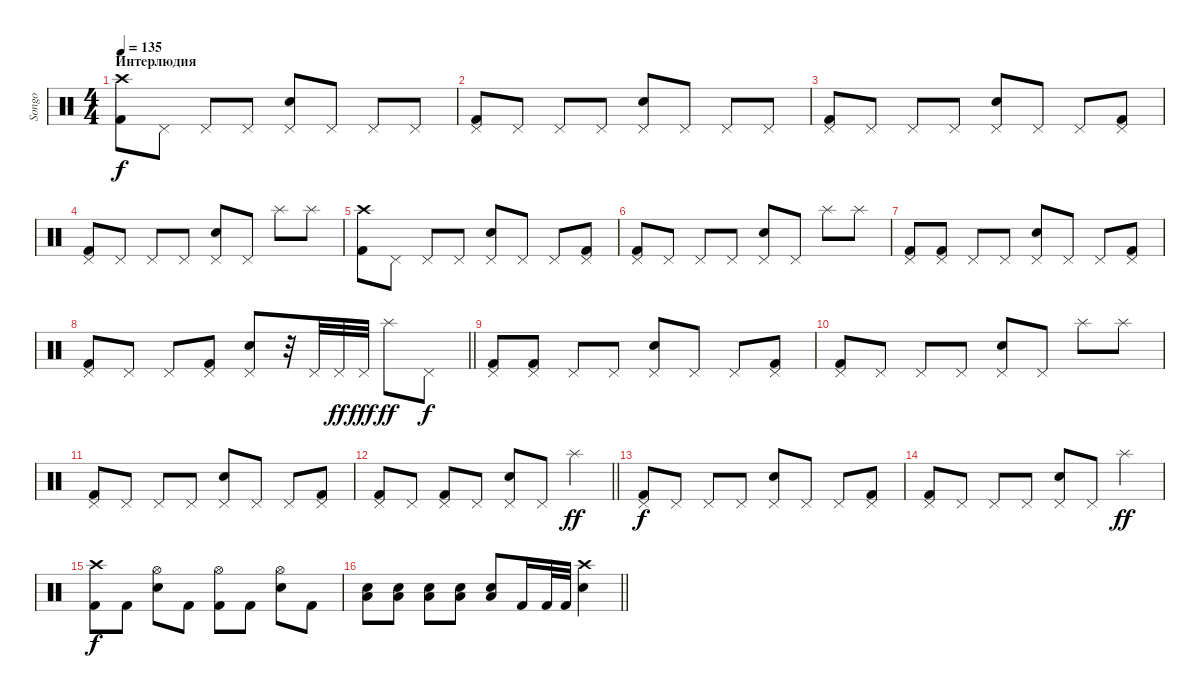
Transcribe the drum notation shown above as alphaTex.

\track ("Songo" "Songo") {instrument percussion}
\staff {score}
\articulation defaults
\ts (4 4)
\section ("" "Интерлюдия")
\tempo 135
\clef neutral
\ks c
("Crash high (hit)" "Kick (hit) 2").8{dy f} "Pedal Hi-Hat (hit)".8 "Pedal Hi-Hat (hit)".8 "Pedal Hi-Hat (hit)".8 ("Pedal Hi-Hat (hit)" "Snare (hit) 2").8 "Pedal Hi-Hat (hit)".8 "Pedal Hi-Hat (hit)".8 "Pedal Hi-Hat (hit)".8 |
("Pedal Hi-Hat (hit)" "Kick (hit) 2").8 "Pedal Hi-Hat (hit)".8 "Pedal Hi-Hat (hit)".8 "Pedal Hi-Hat (hit)".8 ("Pedal Hi-Hat (hit)" "Snare (hit) 2").8 "Pedal Hi-Hat (hit)".8 "Pedal Hi-Hat (hit)".8 "Pedal Hi-Hat (hit)".8 |
("Pedal Hi-Hat (hit)" "Kick (hit) 2").8 "Pedal Hi-Hat (hit)".8 "Pedal Hi-Hat (hit)".8 "Pedal Hi-Hat (hit)".8 ("Pedal Hi-Hat (hit)" "Snare (hit) 2").8 "Pedal Hi-Hat (hit)".8 "Pedal Hi-Hat (hit)".8 ("Pedal Hi-Hat (hit)" "Kick (hit) 2").8 |
("Pedal Hi-Hat (hit)" "Kick (hit) 2").8 "Pedal Hi-Hat (hit)".8 "Pedal Hi-Hat (hit)".8 "Pedal Hi-Hat (hit)".8 ("Pedal Hi-Hat (hit)" "Snare (hit) 2").8 "Pedal Hi-Hat (hit)".8 "Splash (hit)".8 "Splash (hit)".8 |
("Crash high (hit)" "Kick (hit) 2").8 "Pedal Hi-Hat (hit)".8 "Pedal Hi-Hat (hit)".8 "Pedal Hi-Hat (hit)".8 ("Pedal Hi-Hat (hit)" "Snare (hit) 2").8 "Pedal Hi-Hat (hit)".8 "Pedal Hi-Hat (hit)".8 ("Pedal Hi-Hat (hit)" "Kick (hit) 2").8 |
("Pedal Hi-Hat (hit)" "Kick (hit) 2").8 "Pedal Hi-Hat (hit)".8 "Pedal Hi-Hat (hit)".8 "Pedal Hi-Hat (hit)".8 ("Pedal Hi-Hat (hit)" "Snare (hit) 2").8 "Pedal Hi-Hat (hit)".8 "Splash (hit)".8 "Splash (hit)".8 |
("Pedal Hi-Hat (hit)" "Kick (hit) 2").8 ("Pedal Hi-Hat (hit)" "Kick (hit) 2").8 "Pedal Hi-Hat (hit)".8 "Pedal Hi-Hat (hit)".8 ("Pedal Hi-Hat (hit)" "Snare (hit) 2").8 "Pedal Hi-Hat (hit)".8 "Pedal Hi-Hat (hit)".8 ("Pedal Hi-Hat (hit)" "Kick (hit) 2").8 |
\barLineRight lightlight
("Pedal Hi-Hat (hit)" "Kick (hit) 2").8 "Pedal Hi-Hat (hit)".8 "Pedal Hi-Hat (hit)".8 ("Pedal Hi-Hat (hit)" "Kick (hit) 2").8 ("Pedal Hi-Hat (hit)" "Snare (hit) 2").8 r.32 "Pedal Hi-Hat (hit)".32 "Pedal Hi-Hat (hit)".32{dy ff} "Pedal Hi-Hat (hit)".32{dy fff} "Splash (hit)".8{dy ff} "Pedal Hi-Hat (hit)".8{dy f} |
("Pedal Hi-Hat (hit)" "Kick (hit) 2").8 ("Pedal Hi-Hat (hit)" "Kick (hit) 2").8 "Pedal Hi-Hat (hit)".8 "Pedal Hi-Hat (hit)".8 ("Pedal Hi-Hat (hit)" "Snare (hit) 2").8 "Pedal Hi-Hat (hit)".8 "Pedal Hi-Hat (hit)".8 ("Pedal Hi-Hat (hit)" "Kick (hit) 2").8 |
("Pedal Hi-Hat (hit)" "Kick (hit) 2").8 "Pedal Hi-Hat (hit)".8 "Pedal Hi-Hat (hit)".8 "Pedal Hi-Hat (hit)".8 ("Pedal Hi-Hat (hit)" "Snare (hit) 2").8 "Pedal Hi-Hat (hit)".8 "Splash (hit)".8 "Splash (hit)".8 |
("Pedal Hi-Hat (hit)" "Kick (hit) 2").8 "Pedal Hi-Hat (hit)".8 "Pedal Hi-Hat (hit)".8 "Pedal Hi-Hat (hit)".8 ("Pedal Hi-Hat (hit)" "Snare (hit) 2").8 "Pedal Hi-Hat (hit)".8 "Pedal Hi-Hat (hit)".8 ("Pedal Hi-Hat (hit)" "Kick (hit) 2").8 |
\barLineRight lightlight
("Pedal Hi-Hat (hit)" "Kick (hit) 2").8 "Pedal Hi-Hat (hit)".8 ("Pedal Hi-Hat (hit)" "Kick (hit) 2").8 "Pedal Hi-Hat (hit)".8 ("Pedal Hi-Hat (hit)" "Snare (hit) 2").8 "Pedal Hi-Hat (hit)".8 "Splash (hit)".4{dy ff} |
("Pedal Hi-Hat (hit)" "Kick (hit) 2").8{dy f} "Pedal Hi-Hat (hit)".8 "Pedal Hi-Hat (hit)".8 "Pedal Hi-Hat (hit)".8 ("Pedal Hi-Hat (hit)" "Snare (hit) 2").8 "Pedal Hi-Hat (hit)".8 "Pedal Hi-Hat (hit)".8 ("Pedal Hi-Hat (hit)" "Kick (hit) 2").8 |
("Pedal Hi-Hat (hit)" "Kick (hit) 2").8 "Pedal Hi-Hat (hit)".8 "Pedal Hi-Hat (hit)".8 "Pedal Hi-Hat (hit)".8 ("Pedal Hi-Hat (hit)" "Snare (hit) 2").8 "Pedal Hi-Hat (hit)".8 "Splash (hit)".4{dy ff} |
("Crash high (hit)" "Kick (hit) 2").8{dy f} "Kick (hit) 2".8 ("Hi-Hat (open)" "Snare (hit) 2").8 "Kick (hit) 2".8 ("Hi-Hat (open)" "Kick (hit) 2").8 "Kick (hit) 2".8 ("Hi-Hat (open)" "Snare (hit) 2").8 "Kick (hit) 2".8 |
\barLineRight lightlight
("Low Tom (hit)" "Snare (hit) 2").8 ("Low Tom (hit)" "Snare (hit) 2").8 ("Low Tom (hit)" "Snare (hit) 2").8 ("Low Tom (hit)" "Snare (hit) 2").8 ("Low Tom (hit)" "Snare (hit) 2").8 "Kick (hit) 2".16 "Kick (hit) 2".32 "Kick (hit) 2".32 ("Crash high (hit)" "Snare (hit) 2").4
